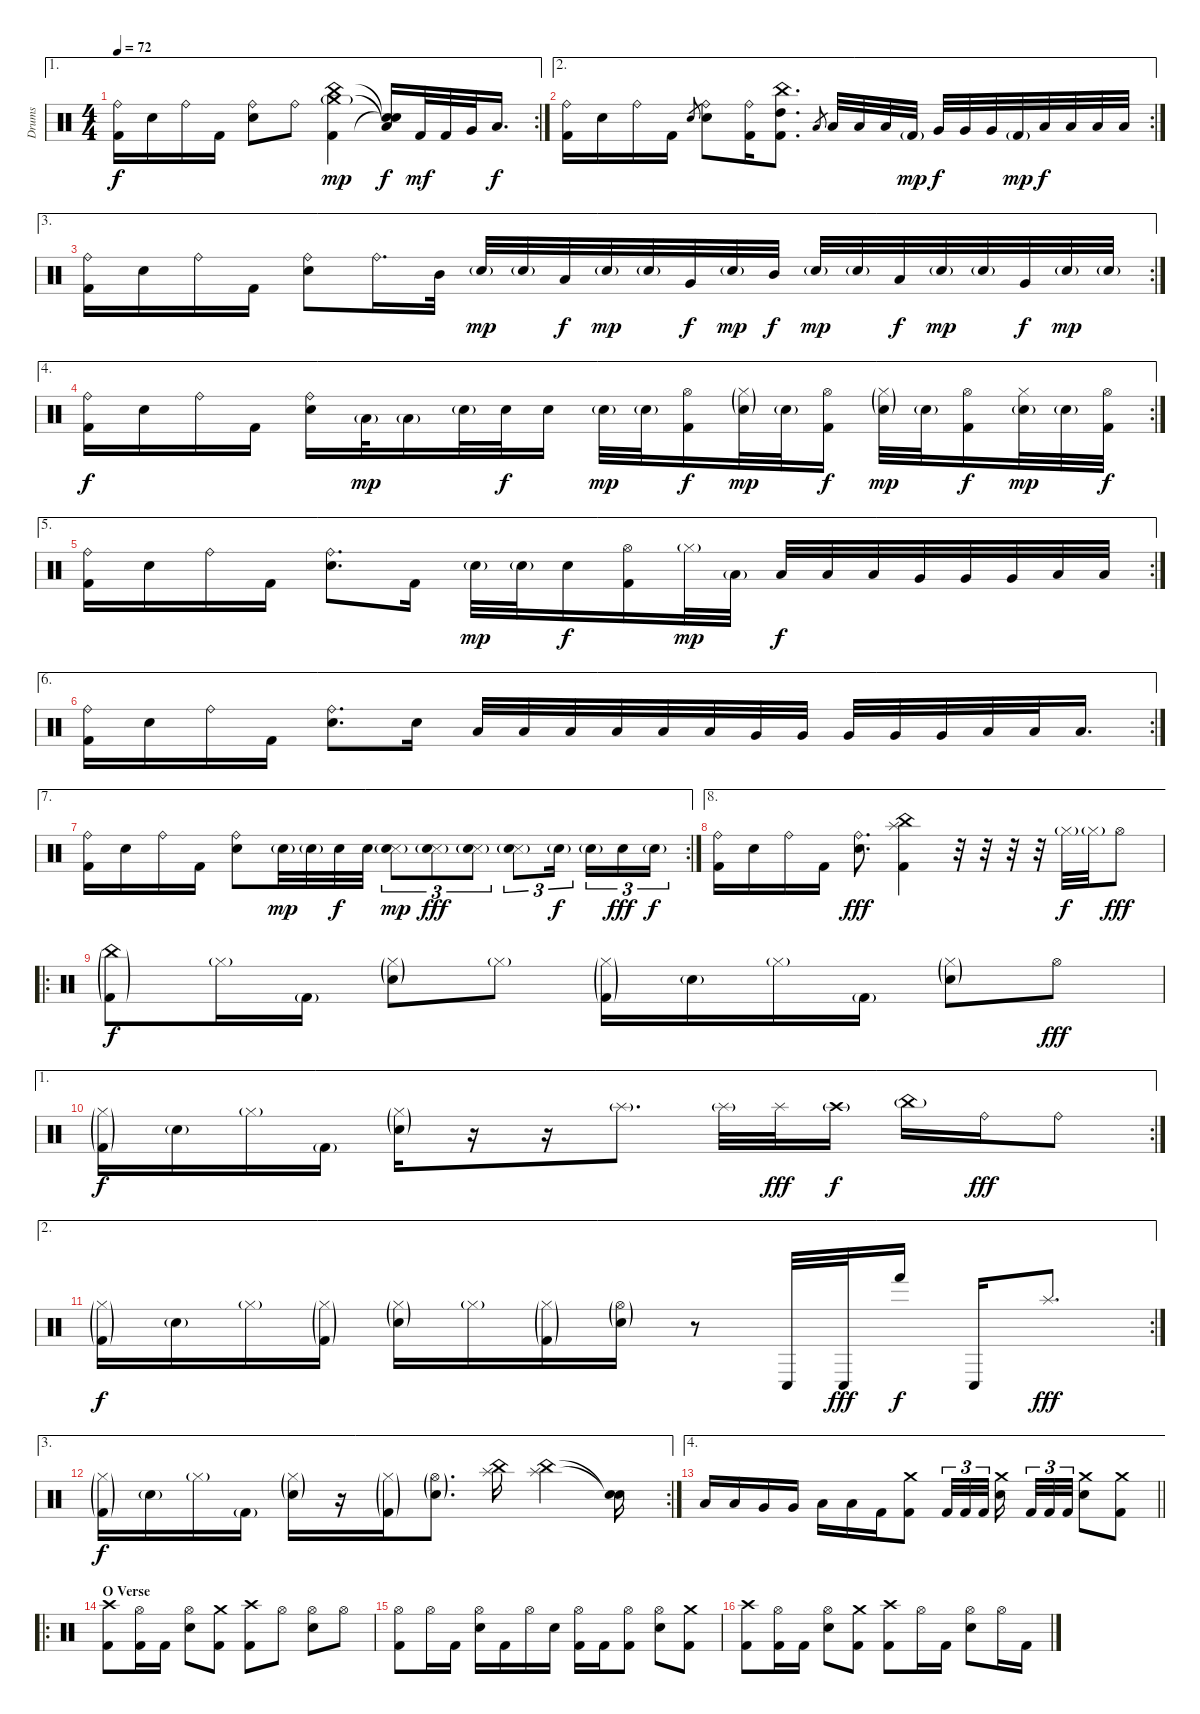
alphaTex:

\track ("Drums" "Drums") {instrument percussion}
\staff {score}
\articulation defaults
\ae 1
\rc 2
\ts (4 4)
\tempo 72
\clef neutral
\ks c
("Ride (bell)" "Kick (hit) 2").16{dy f} "Electric Snare (hit)".16 "Ride (bell)".16 "Kick (hit) 2".16 ("Ride (bell)" "Electric Snare (hit)").8 "Ride (bell)".8 ("China (hit)" "Crash medium (hit)"{g} "Kick (hit) 2").4{dy mp} ("Snare (hit)"{t} "Low Floor Tom (hit)"{t} "Snare (hit)"{t}).16{dy f} "Kick (hit) 2".32{dy mf} "Kick (hit) 2".32 "Very Low Tom (hit)".32 "Low Floor Tom (hit)".16{d dy f} |
\ae 2
\rc 2
("Ride (bell)" "Kick (hit) 2").16 "Electric Snare (hit)".16 "Ride (bell)".16 "Kick (hit) 2".16 "Electric Snare (hit)".8{gr} ("Ride (bell)" "Electric Snare (hit)").8 ("Ride (bell)" "Kick (hit) 2").16 ("China (hit)" "High Tom (hit)" "Kick (hit) 2").8{d} "Low Tom (hit)".8{gr} "Low Tom (hit)".32 "Low Tom (hit)".32 "Low Tom (hit)".32 "Kick (hit) 2"{g}.32{dy mp} "Very Low Tom (hit)".32{dy f} "Very Low Tom (hit)".32 "Very Low Tom (hit)".32 "Kick (hit) 2"{g}.32{dy mp} "Low Floor Tom (hit)".32{dy f} "Low Floor Tom (hit)".32 "Low Floor Tom (hit)".32 "Low Floor Tom (hit)".32 |
\ae 3
\rc 2
("Ride (bell)" "Kick (hit) 2").16 "Electric Snare (hit)".16 "Ride (bell)".16 "Kick (hit) 2".16 ("Ride (bell)" "Electric Snare (hit)").8 "Ride (bell)".16{d} "Mid Tom (hit)".32 "Electric Snare (hit)"{g}.32{dy mp} "Electric Snare (hit)"{g}.32 "Low Tom (hit)".32{dy f} "Electric Snare (hit)"{g}.32{dy mp} "Electric Snare (hit)"{g}.32 "Very Low Tom (hit)".32{dy f} "Electric Snare (hit)"{g}.32{dy mp} "Mid Tom (hit)".32{dy f} "Electric Snare (hit)"{g}.32{dy mp} "Electric Snare (hit)"{g}.32 "Low Tom (hit)".32{dy f} "Electric Snare (hit)"{g}.32{dy mp} "Electric Snare (hit)"{g}.32 "Very Low Tom (hit)".32{dy f} "Electric Snare (hit)"{g}.32{dy mp} "Electric Snare (hit)"{g}.32 |
\ae 4
\rc 2
("Ride (bell)" "Kick (hit) 2").16{dy f} "Electric Snare (hit)".16 "Ride (bell)".16 "Kick (hit) 2".16 ("Ride (bell)" "Electric Snare (hit)").16 "Low Tom (hit)"{g}.32{dy mp} "Low Tom (hit)"{g}.16 "Electric Snare (hit)"{g}.32 "Electric Snare (hit)".32{dy f} "Electric Snare (hit)".16 "Electric Snare (hit)"{g}.32{dy mp} "Electric Snare (hit)"{g}.32 ("Hi-Hat (open)" "Kick (hit) 2").16{dy f} ("Hi-Hat (closed)"{g} "Electric Snare (hit)"{g}).32{dy mp} "Electric Snare (hit)"{g}.32 ("Hi-Hat (open)" "Kick (hit) 2").16{dy f} ("Hi-Hat (closed)"{g} "Electric Snare (hit)"{g}).32{dy mp} "Electric Snare (hit)"{g}.32 ("Hi-Hat (open)" "Kick (hit) 2").16{dy f} ("Hi-Hat (closed)" "Electric Snare (hit)"{g}).32{dy mp} "Electric Snare (hit)"{g}.32 ("Hi-Hat (open)" "Kick (hit) 2").32{dy f} |
\ae 5
\rc 2
("Ride (bell)" "Kick (hit) 2").16 "Electric Snare (hit)".16 "Ride (bell)".16 "Kick (hit) 2".16 ("Ride (bell)" "Electric Snare (hit)").8{d} "Kick (hit) 2".16 "Electric Snare (hit)"{g}.32{dy mp} "Electric Snare (hit)"{g}.32 "Electric Snare (hit)".16{dy f} ("Hi-Hat (open)" "Kick (hit) 2").16 "Hi-Hat (closed)"{g}.32{dy mp} "Low Tom (hit)"{g}.32 "Low Tom (hit)".32{dy f} "Low Tom (hit)".32 "Low Tom (hit)".32 "Very Low Tom (hit)".32 "Very Low Tom (hit)".32 "Very Low Tom (hit)".32 "Low Floor Tom (hit)".32 "Low Floor Tom (hit)".32 |
\ae 6
\rc 2
("Ride (bell)" "Kick (hit) 2").16 "Electric Snare (hit)".16 "Ride (bell)".16 "Kick (hit) 2".16 ("Ride (bell)" "Electric Snare (hit)").8{d} "Electric Snare (hit)".16 "Low Tom (hit)".32 "Low Tom (hit)".32 "Low Tom (hit)".32 "Low Tom (hit)".32 "Low Tom (hit)".32 "Low Tom (hit)".32 "Very Low Tom (hit)".32 "Very Low Tom (hit)".32 "Very Low Tom (hit)".32 "Very Low Tom (hit)".32 "Very Low Tom (hit)".32 "Low Floor Tom (hit)".32 "Low Floor Tom (hit)".32 "Low Floor Tom (hit)".16{d} |
\ae 7
\rc 2
("Ride (bell)" "Kick (hit) 2").16 "Electric Snare (hit)".16 "Ride (bell)".16 "Kick (hit) 2".16 ("Ride (bell)" "Electric Snare (hit)").8 "Electric Snare (hit)"{g}.32{dy mp} "Electric Snare (hit)"{g}.32 "Electric Snare (hit)".32{dy f} "Electric Snare (hit)".32 ("Snare (side stick) 3" "Electric Snare (hit)"{g}).8{tu (3 2) dy mp} ("Snare (side stick) 3" "Electric Snare (hit)"{g}).8{tu (3 2) dy fff} ("Snare (side stick) 3" "Electric Snare (hit)"{g}).8{tu (3 2)} ("Snare (side stick) 3" "Electric Snare (hit)"{g}).8{tu (3 2)} "Electric Snare (hit)"{g}.16{tu (3 2) dy f beam splitsecondary} "Electric Snare (hit)"{g}.16{tu (3 2)} "Electric Snare (hit)".16{tu (3 2) dy fff} "Electric Snare (hit)"{g}.16{tu (3 2) dy f} |
\ae 8
("Ride (bell)" "Kick (hit) 2").16 "Electric Snare (hit)".16 "Ride (bell)".16 "Kick (hit) 2".16 ("Ride (bell)" "Electric Snare (hit)").8{d dy fff} ("China (hit)" "Splash (hit)" "Kick (hit) 2").4 r.32 r.32 r.32 r.32 "Hi-Hat (closed)"{g}.32{dy f} "Hi-Hat (closed)"{g}.32 "Hi-Hat (open)".8{dy fff} |
\ro
("China (hit)"{g} "Kick (hit) 2"{g}).8{dy f} "Hi-Hat (closed)"{g}.16 "Kick (hit) 2"{g}.16 ("Hi-Hat (closed)"{g} "Electric Snare (hit)"{g}).8 "Hi-Hat (closed)"{g}.8 ("Hi-Hat (closed)"{g} "Kick (hit) 2"{g}).16 "Electric Snare (hit)"{g}.16 "Hi-Hat (closed)"{g}.16 "Kick (hit) 2"{g}.16 ("Hi-Hat (closed)"{g} "Electric Snare (hit)"{g}).8 "Hi-Hat (open)".8{dy fff} |
\ae 1
\rc 2
("Hi-Hat (closed)"{g} "Kick (hit) 2"{g}).16{dy f} "Electric Snare (hit)"{g}.16 "Hi-Hat (closed)"{g}.16 "Kick (hit) 2"{g}.16 ("Hi-Hat (closed)"{g} "Electric Snare (hit)"{g}).16 r.16 r.16 "Splash (hit)"{g}.8{d} "Splash (hit)"{g}.32 "Splash (hit)".32{dy fff} "Crash high (hit)"{g}.16{dy f} "China (hit)"{g}.16 "Ride (bell)".16{dy fff} "Ride (bell)".8 |
\ae 2
\rc 2
("Hi-Hat (closed)"{g} "Kick (hit) 2"{g}).16{dy f} "Electric Snare (hit)"{g}.16 "Hi-Hat (closed)"{g}.16 ("Hi-Hat (closed)"{g} "Kick (hit) 2"{g}).16 ("Hi-Hat (closed)"{g} "Electric Snare (hit)"{g}).16 "Hi-Hat (closed)"{g}.16 ("Hi-Hat (closed)"{g} "Kick (hit) 2"{g}).16 ("Hi-Hat (open)"{g} "Electric Snare (hit)"{g}).16 r.8 "Conga low (hit)".32 "Conga low (hit)".32{dy fff} "Hand (hit)".16{dy f} "Conga low (hit)".16 "Splash (hit)".8{d dy fff} |
\ae 3
\rc 2
("Hi-Hat (closed)"{g} "Kick (hit) 2"{g}).16{dy f} "Electric Snare (hit)"{g}.16 "Hi-Hat (closed)"{g}.16 "Kick (hit) 2"{g}.16 ("Hi-Hat (closed)"{g} "Electric Snare (hit)"{g}).16 r.16 ("Hi-Hat (closed)"{g} "Kick (hit) 2"{g}).16 ("Hi-Hat (open)"{g} "Electric Snare (hit)"{g}).8{d} ("Splash (hit)" "China (hit)").16 ("Splash (hit)" "China (hit)").4 ("Snare (hit)"{t} "Snare (hit)"{t}).16 |
\ae 4
\barLineRight lightlight "Low Tom (hit)".16 "Low Tom (hit)".16 "Very Low Tom (hit)".16 "Very Low Tom (hit)".16 "Low Floor Tom (hit)".16 "Low Floor Tom (hit)".16 "Kick (hit) 2".16
("Crash medium (hit)" "Kick (hit) 2").8 "Kick (hit) 2".32{tu (3 2)} "Kick (hit) 2".32{tu (3 2)} "Kick (hit) 2".32{tu (3 2) beam splitsecondary} ("Crash medium (hit)" "Electric Snare (hit)").16{beam splitsecondary} "Kick (hit) 2".32{tu (3 2)} "Kick (hit) 2".32{tu (3 2)} "Kick (hit) 2".32{tu (3 2)} ("Crash medium (hit)" "Electric Snare (hit)").8 ("Crash medium (hit)" "Kick (hit) 2").8 |
\ro
\section ("" "O Verse")
("Crash high (hit)" "Kick (hit) 2").8 ("Hi-Hat (open)" "Kick (hit) 2").16 "Kick (hit) 2".16 ("Hi-Hat (open)" "Electric Snare (hit)").8 ("Crash medium (hit)" "Kick (hit) 2").8 ("Crash high (hit)" "Kick (hit) 2").8 "Hi-Hat (open)".8 ("Hi-Hat (open)" "Electric Snare (hit)").8 "Hi-Hat (open)".8 |
("Hi-Hat (open)" "Kick (hit) 2").8 "Hi-Hat (open)".16 "Kick (hit) 2".16 ("Hi-Hat (open)" "Electric Snare (hit)").16 "Kick (hit) 2".16 "Hi-Hat (open)".16 "Electric Snare (hit)".16 ("Hi-Hat (open)" "Kick (hit) 2").16 "Kick (hit) 2".16 ("Hi-Hat (open)" "Kick (hit) 2").8 ("Hi-Hat (open)" "Electric Snare (hit)").8 ("Crash medium (hit)" "Kick (hit) 2").8 |
("Crash high (hit)" "Kick (hit) 2").8 ("Hi-Hat (open)" "Kick (hit) 2").16 "Kick (hit) 2".16 ("Hi-Hat (open)" "Electric Snare (hit)").8 ("Crash medium (hit)" "Kick (hit) 2").8 ("Crash high (hit)" "Kick (hit) 2").8 "Hi-Hat (open)".16 "Kick (hit) 2".16 ("Hi-Hat (open)" "Electric Snare (hit)").8 "Hi-Hat (open)".16 "Kick (hit) 2".16
